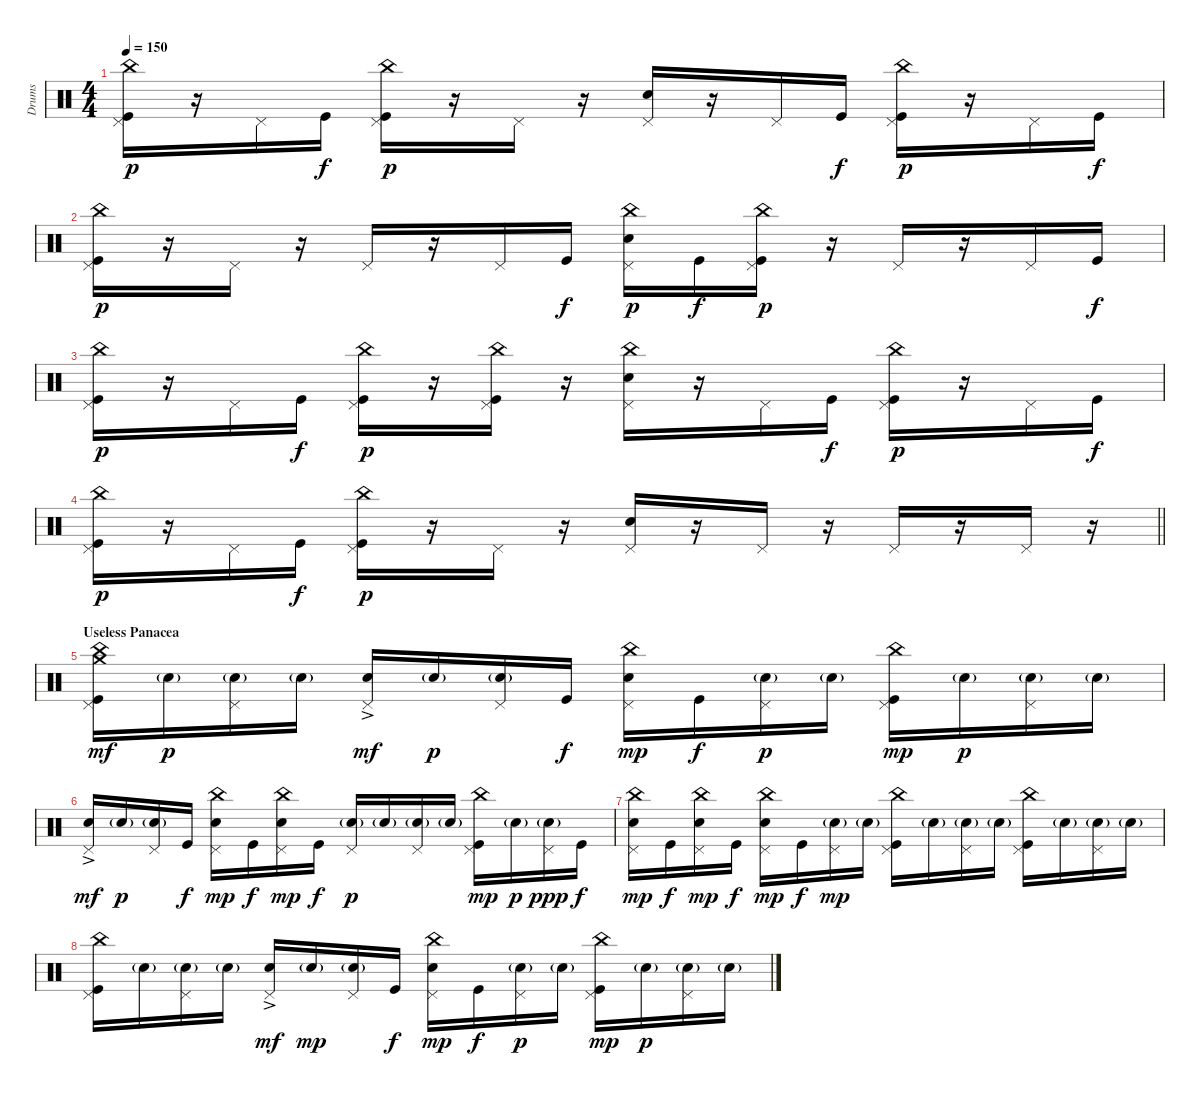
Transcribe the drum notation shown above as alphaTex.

\track ("Drums" "Drums") {instrument percussion}
\staff {score}
\articulation defaults
\ts (4 4)
\tempo 150
\clef neutral
\ks c
("China (hit)" "Pedal Hi-Hat (hit)" "Kick (hit)").16{dy p} r.16 "Pedal Hi-Hat (hit)".16 "Kick (hit)".16{dy f} ("China (hit)" "Pedal Hi-Hat (hit)" "Kick (hit)").16{dy p} r.16 "Pedal Hi-Hat (hit)".16 r.16 ("Pedal Hi-Hat (hit)" "Electric Snare (hit)").16 r.16 "Pedal Hi-Hat (hit)".16 "Kick (hit)".16{dy f} ("China (hit)" "Pedal Hi-Hat (hit)" "Kick (hit)").16{dy p} r.16 "Pedal Hi-Hat (hit)".16 "Kick (hit)".16{dy f} |
("China (hit)" "Pedal Hi-Hat (hit)" "Kick (hit)").16{dy p} r.16 "Pedal Hi-Hat (hit)".16 r.16 "Pedal Hi-Hat (hit)".16 r.16 "Pedal Hi-Hat (hit)".16 "Kick (hit)".16{dy f} ("China (hit)" "Pedal Hi-Hat (hit)" "Electric Snare (hit)").16{dy p} "Kick (hit)".16{dy f} ("China (hit)" "Pedal Hi-Hat (hit)" "Kick (hit)").16{dy p} r.16 "Pedal Hi-Hat (hit)".16 r.16 "Pedal Hi-Hat (hit)".16 "Kick (hit)".16{dy f} |
("China (hit)" "Pedal Hi-Hat (hit)" "Kick (hit)").16{dy p} r.16 "Pedal Hi-Hat (hit)".16 "Kick (hit)".16{dy f} ("China (hit)" "Pedal Hi-Hat (hit)" "Kick (hit)").16{dy p} r.16 ("China (hit)" "Pedal Hi-Hat (hit)" "Kick (hit)").16 r.16 ("China (hit)" "Pedal Hi-Hat (hit)" "Electric Snare (hit)").16 r.16 "Pedal Hi-Hat (hit)".16 "Kick (hit)".16{dy f} ("China (hit)" "Pedal Hi-Hat (hit)" "Kick (hit)").16{dy p} r.16 "Pedal Hi-Hat (hit)".16 "Kick (hit)".16{dy f} |
\barLineRight lightlight
("China (hit)" "Pedal Hi-Hat (hit)" "Kick (hit)").16{dy p} r.16 "Pedal Hi-Hat (hit)".16 "Kick (hit)".16{dy f} ("China (hit)" "Pedal Hi-Hat (hit)" "Kick (hit)").16{dy p} r.16 "Pedal Hi-Hat (hit)".16 r.16 ("Pedal Hi-Hat (hit)" "Electric Snare (hit)").16 r.16 "Pedal Hi-Hat (hit)".16 r.16 "Pedal Hi-Hat (hit)".16 r.16 "Pedal Hi-Hat (hit)".16 r.16 |
\section ("" "Useless Panacea")
("China (hit)" "Pedal Hi-Hat (hit)" "Crash medium (hit)" "Kick (hit)").16{dy mf} "Electric Snare (hit)"{g}.16{dy p} ("Pedal Hi-Hat (hit)" "Electric Snare (hit)"{g}).16 "Electric Snare (hit)"{g}.16 ("Pedal Hi-Hat (hit)" "Electric Snare (hit)"{ac}).16{dy mf} "Electric Snare (hit)"{g}.16{dy p} ("Pedal Hi-Hat (hit)" "Electric Snare (hit)"{g}).16 "Kick (hit)".16{dy f} ("China (hit)" "Pedal Hi-Hat (hit)" "Electric Snare (hit)").16{dy mp} "Kick (hit)".16{dy f} ("Pedal Hi-Hat (hit)" "Electric Snare (hit)"{g}).16{dy p} "Electric Snare (hit)"{g}.16 ("China (hit)" "Pedal Hi-Hat (hit)" "Kick (hit)").16{dy mp} "Electric Snare (hit)"{g}.16{dy p} ("Pedal Hi-Hat (hit)" "Electric Snare (hit)"{g}).16 "Electric Snare (hit)"{g}.16 |
("Pedal Hi-Hat (hit)" "Electric Snare (hit)"{ac}).16{dy mf} "Electric Snare (hit)"{g}.16{dy p} ("Pedal Hi-Hat (hit)" "Electric Snare (hit)"{g}).16 "Kick (hit)".16{dy f} ("China (hit)" "Pedal Hi-Hat (hit)" "Electric Snare (hit)").16{dy mp} "Kick (hit)".16{dy f} ("China (hit)" "Pedal Hi-Hat (hit)" "Electric Snare (hit)").16{dy mp} "Kick (hit)".16{dy f} ("Pedal Hi-Hat (hit)" "Electric Snare (hit)"{g}).16{dy p} "Electric Snare (hit)"{g}.16 ("Pedal Hi-Hat (hit)" "Electric Snare (hit)"{g}).16 "Electric Snare (hit)"{g}.16 ("China (hit)" "Pedal Hi-Hat (hit)" "Kick (hit)").16{dy mp} "Electric Snare (hit)"{g}.16{dy p} ("Pedal Hi-Hat (hit)" "Electric Snare (hit)"{g}).16{dy ppp} "Kick (hit)".16{dy f} |
("China (hit)" "Pedal Hi-Hat (hit)" "Electric Snare (hit)").16{dy mp} "Kick (hit)".16{dy f} ("China (hit)" "Pedal Hi-Hat (hit)" "Electric Snare (hit)").16{dy mp} "Kick (hit)".16{dy f} ("China (hit)" "Pedal Hi-Hat (hit)" "Electric Snare (hit)").16{dy mp} "Kick (hit)".16{dy f} ("Pedal Hi-Hat (hit)" "Electric Snare (hit)"{g}).16{dy mp} "Electric Snare (hit)"{g}.16 ("China (hit)" "Pedal Hi-Hat (hit)" "Kick (hit)").16 "Electric Snare (hit)"{g}.16 ("Pedal Hi-Hat (hit)" "Electric Snare (hit)"{g}).16 "Electric Snare (hit)"{g}.16 ("China (hit)" "Pedal Hi-Hat (hit)" "Kick (hit)").16 "Electric Snare (hit)"{g}.16 ("Pedal Hi-Hat (hit)" "Electric Snare (hit)"{g}).16 "Electric Snare (hit)"{g}.16 |
("China (hit)" "Pedal Hi-Hat (hit)" "Kick (hit)").16 "Electric Snare (hit)"{g}.16 ("Pedal Hi-Hat (hit)" "Electric Snare (hit)"{g}).16 "Electric Snare (hit)"{g}.16 ("Pedal Hi-Hat (hit)" "Electric Snare (hit)"{ac}).16{dy mf} "Electric Snare (hit)"{g}.16{dy mp} ("Pedal Hi-Hat (hit)" "Electric Snare (hit)"{g}).16 "Kick (hit)".16{dy f} ("China (hit)" "Pedal Hi-Hat (hit)" "Electric Snare (hit)").16{dy mp} "Kick (hit)".16{dy f} ("Pedal Hi-Hat (hit)" "Electric Snare (hit)"{g}).16{dy p} "Electric Snare (hit)"{g}.16 ("China (hit)" "Pedal Hi-Hat (hit)" "Kick (hit)").16{dy mp} "Electric Snare (hit)"{g}.16{dy p} ("Pedal Hi-Hat (hit)" "Electric Snare (hit)"{g}).16 "Electric Snare (hit)"{g}.16
